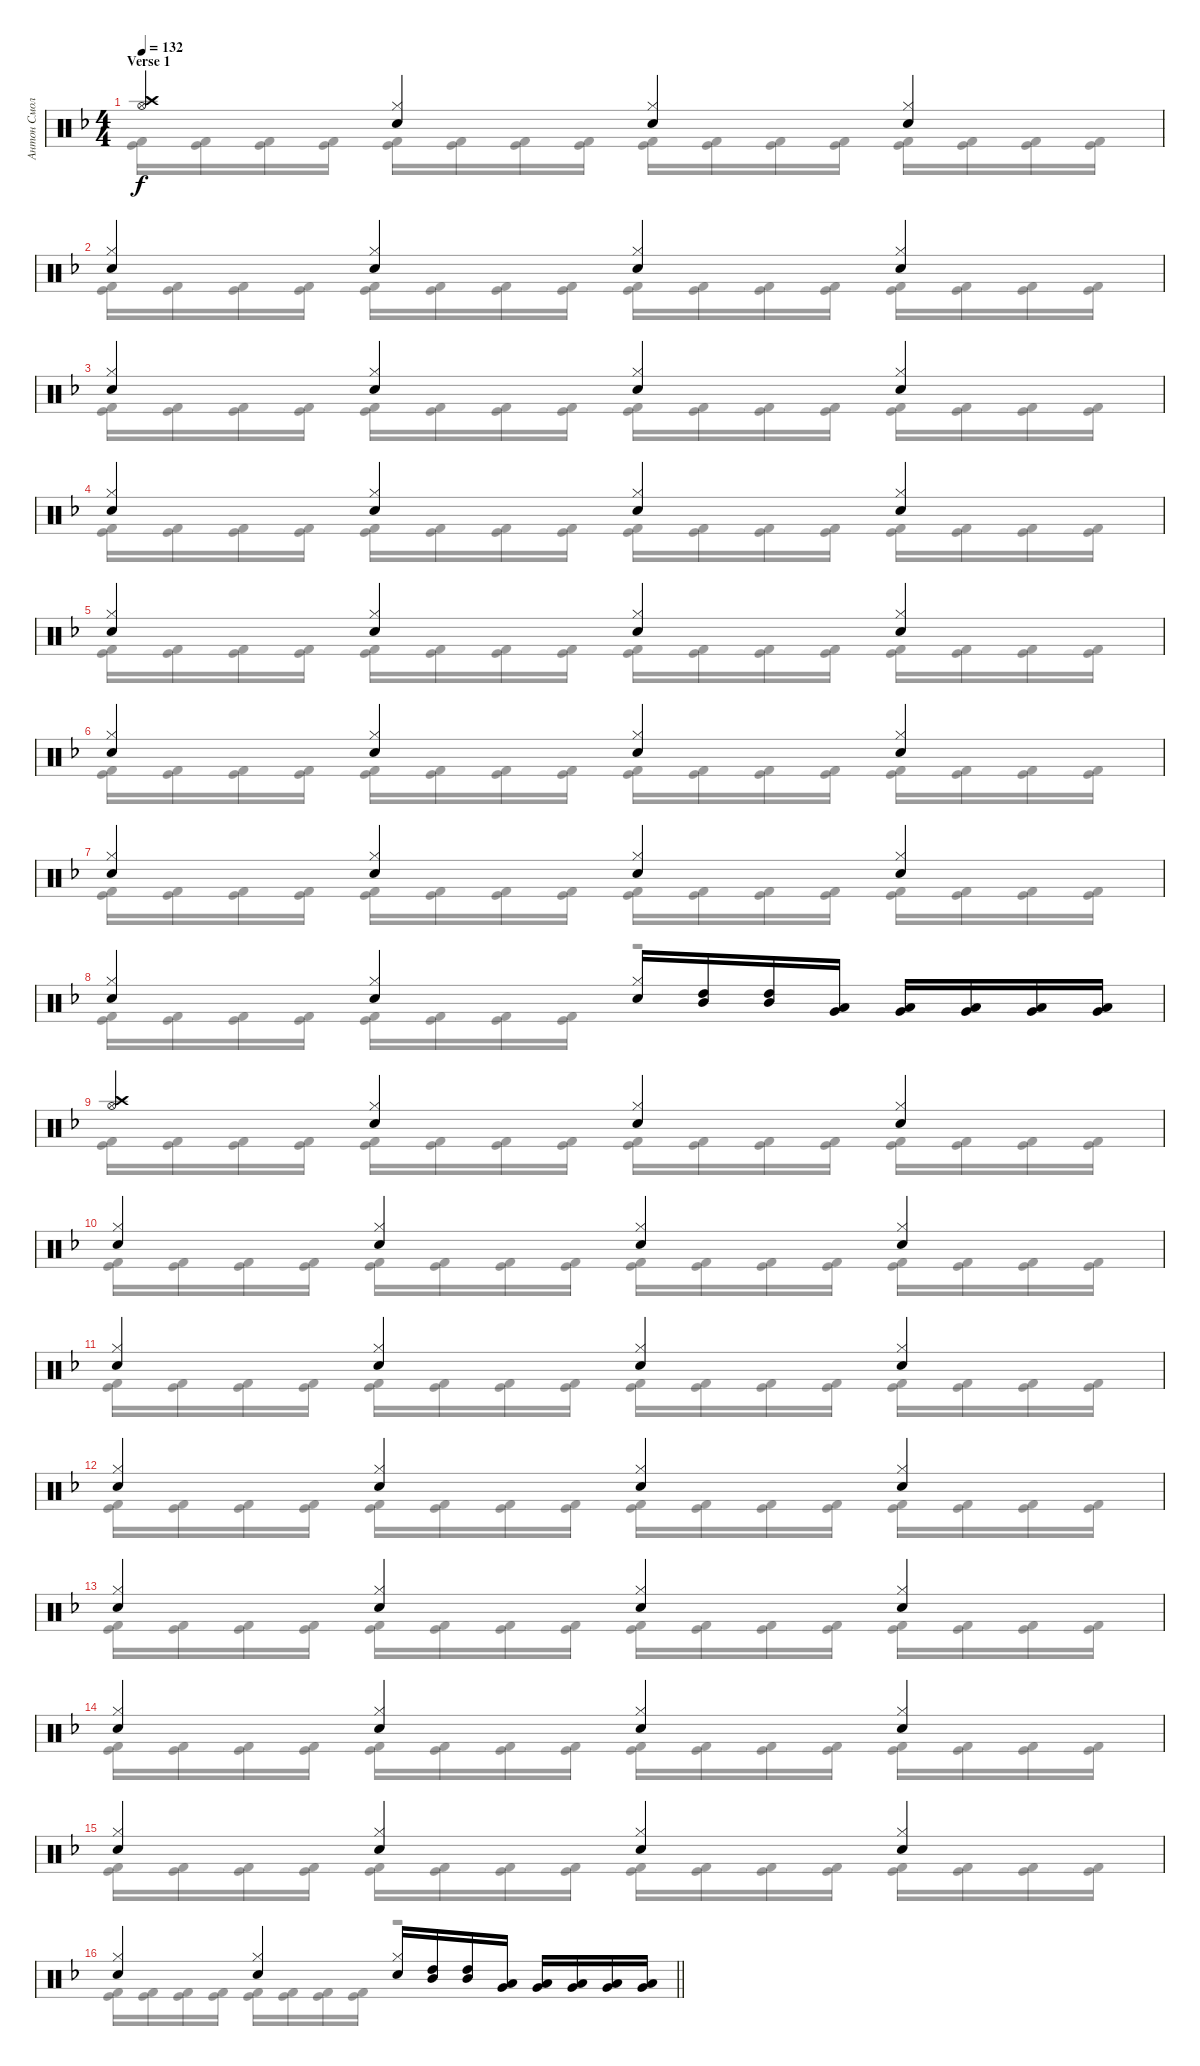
\track ("Антон Смольянин" "Антон Смол") {instrument percussion}
\staff {score}
\articulation defaults
\voice
\ts (4 4)
\section ("" "Verse 1")
\tempo 132
\clef neutral
\ks f
("Hi-Hat (open)" "Crash high (hit)").4{dy f} ("Hi-Hat (closed)" "Snare (hit) 2").4 ("Hi-Hat (closed)" "Snare (hit) 2").4 ("Hi-Hat (closed)" "Snare (hit) 2").4 |
("Hi-Hat (closed)" "Snare (hit) 2").4 ("Hi-Hat (closed)" "Snare (hit) 2").4 ("Hi-Hat (closed)" "Snare (hit) 2").4 ("Hi-Hat (closed)" "Snare (hit) 2").4 |
("Hi-Hat (closed)" "Snare (hit) 2").4 ("Hi-Hat (closed)" "Snare (hit) 2").4 ("Hi-Hat (closed)" "Snare (hit) 2").4 ("Hi-Hat (closed)" "Snare (hit) 2").4 |
("Hi-Hat (closed)" "Snare (hit) 2").4 ("Hi-Hat (closed)" "Snare (hit) 2").4 ("Hi-Hat (closed)" "Snare (hit) 2").4 ("Hi-Hat (closed)" "Snare (hit) 2").4 |
("Hi-Hat (closed)" "Snare (hit) 2").4 ("Hi-Hat (closed)" "Snare (hit) 2").4 ("Hi-Hat (closed)" "Snare (hit) 2").4 ("Hi-Hat (closed)" "Snare (hit) 2").4 |
("Hi-Hat (closed)" "Snare (hit) 2").4 ("Hi-Hat (closed)" "Snare (hit) 2").4 ("Hi-Hat (closed)" "Snare (hit) 2").4 ("Hi-Hat (closed)" "Snare (hit) 2").4 |
("Hi-Hat (closed)" "Snare (hit) 2").4 ("Hi-Hat (closed)" "Snare (hit) 2").4 ("Hi-Hat (closed)" "Snare (hit) 2").4 ("Hi-Hat (closed)" "Snare (hit) 2").4 |
("Hi-Hat (closed)" "Snare (hit) 2").4 ("Hi-Hat (closed)" "Snare (hit) 2").4 ("Hi-Hat (closed)" "Snare (hit) 2").16 ("High Tom (hit)" "Mid Tom (hit)").16 ("Mid Tom (hit)" "High Tom (hit)").16 ("Low Tom (hit)" "Very Low Tom (hit)").16 ("Very Low Tom (hit)" "Low Tom (hit)").16 ("Very Low Tom (hit)" "Low Tom (hit)").16 ("Low Floor Tom (hit)" "Very Low Tom (hit)").16 ("Very Low Tom (hit)" "Low Tom (hit)").16 |
("Hi-Hat (open)" "Crash high (hit)").4 ("Hi-Hat (closed)" "Snare (hit) 2").4 ("Hi-Hat (closed)" "Snare (hit) 2").4 ("Hi-Hat (closed)" "Snare (hit) 2").4 |
("Hi-Hat (closed)" "Snare (hit) 2").4 ("Hi-Hat (closed)" "Snare (hit) 2").4 ("Hi-Hat (closed)" "Snare (hit) 2").4 ("Hi-Hat (closed)" "Snare (hit) 2").4 |
("Hi-Hat (closed)" "Snare (hit) 2").4 ("Hi-Hat (closed)" "Snare (hit) 2").4 ("Hi-Hat (closed)" "Snare (hit) 2").4 ("Hi-Hat (closed)" "Snare (hit) 2").4 |
("Hi-Hat (closed)" "Snare (hit) 2").4 ("Hi-Hat (closed)" "Snare (hit) 2").4 ("Hi-Hat (closed)" "Snare (hit) 2").4 ("Hi-Hat (closed)" "Snare (hit) 2").4 |
("Hi-Hat (closed)" "Snare (hit) 2").4 ("Hi-Hat (closed)" "Snare (hit) 2").4 ("Hi-Hat (closed)" "Snare (hit) 2").4 ("Hi-Hat (closed)" "Snare (hit) 2").4 |
("Hi-Hat (closed)" "Snare (hit) 2").4 ("Hi-Hat (closed)" "Snare (hit) 2").4 ("Hi-Hat (closed)" "Snare (hit) 2").4 ("Hi-Hat (closed)" "Snare (hit) 2").4 |
("Hi-Hat (closed)" "Snare (hit) 2").4 ("Hi-Hat (closed)" "Snare (hit) 2").4 ("Hi-Hat (closed)" "Snare (hit) 2").4 ("Hi-Hat (closed)" "Snare (hit) 2").4 |
\barLineRight lightlight
("Hi-Hat (closed)" "Snare (hit) 2").4 ("Hi-Hat (closed)" "Snare (hit) 2").4 ("Hi-Hat (closed)" "Snare (hit) 2").16 ("High Tom (hit)" "Mid Tom (hit)").16 ("Mid Tom (hit)" "High Tom (hit)").16 ("Low Tom (hit)" "Very Low Tom (hit)").16 ("Very Low Tom (hit)" "Low Tom (hit)").16 ("Very Low Tom (hit)" "Low Tom (hit)").16 ("Low Floor Tom (hit)" "Very Low Tom (hit)").16 ("Very Low Tom (hit)" "Low Tom (hit)").16
\voice
\clef neutral
\ottava regular
\simile none
\ks f
("Kick (hit) 2" "Kick (hit)").16{dy f} ("Kick (hit) 2" "Kick (hit)").16 ("Kick (hit) 2" "Kick (hit)").16 ("Kick (hit) 2" "Kick (hit)").16 ("Kick (hit) 2" "Kick (hit)").16 ("Kick (hit) 2" "Kick (hit)").16 ("Kick (hit) 2" "Kick (hit)").16 ("Kick (hit) 2" "Kick (hit)").16 ("Kick (hit) 2" "Kick (hit)").16 ("Kick (hit) 2" "Kick (hit)").16 ("Kick (hit) 2" "Kick (hit)").16 ("Kick (hit) 2" "Kick (hit)").16 ("Kick (hit) 2" "Kick (hit)").16 ("Kick (hit) 2" "Kick (hit)").16 ("Kick (hit) 2" "Kick (hit)").16 ("Kick (hit) 2" "Kick (hit)").16 |
("Kick (hit) 2" "Kick (hit)").16 ("Kick (hit) 2" "Kick (hit)").16 ("Kick (hit) 2" "Kick (hit)").16 ("Kick (hit) 2" "Kick (hit)").16 ("Kick (hit) 2" "Kick (hit)").16 ("Kick (hit) 2" "Kick (hit)").16 ("Kick (hit) 2" "Kick (hit)").16 ("Kick (hit) 2" "Kick (hit)").16 ("Kick (hit) 2" "Kick (hit)").16 ("Kick (hit) 2" "Kick (hit)").16 ("Kick (hit) 2" "Kick (hit)").16 ("Kick (hit) 2" "Kick (hit)").16 ("Kick (hit) 2" "Kick (hit)").16 ("Kick (hit) 2" "Kick (hit)").16 ("Kick (hit) 2" "Kick (hit)").16 ("Kick (hit) 2" "Kick (hit)").16 |
("Kick (hit) 2" "Kick (hit)").16 ("Kick (hit) 2" "Kick (hit)").16 ("Kick (hit) 2" "Kick (hit)").16 ("Kick (hit) 2" "Kick (hit)").16 ("Kick (hit) 2" "Kick (hit)").16 ("Kick (hit) 2" "Kick (hit)").16 ("Kick (hit) 2" "Kick (hit)").16 ("Kick (hit) 2" "Kick (hit)").16 ("Kick (hit) 2" "Kick (hit)").16 ("Kick (hit) 2" "Kick (hit)").16 ("Kick (hit) 2" "Kick (hit)").16 ("Kick (hit) 2" "Kick (hit)").16 ("Kick (hit) 2" "Kick (hit)").16 ("Kick (hit) 2" "Kick (hit)").16 ("Kick (hit) 2" "Kick (hit)").16 ("Kick (hit) 2" "Kick (hit)").16 |
("Kick (hit) 2" "Kick (hit)").16 ("Kick (hit) 2" "Kick (hit)").16 ("Kick (hit) 2" "Kick (hit)").16 ("Kick (hit) 2" "Kick (hit)").16 ("Kick (hit) 2" "Kick (hit)").16 ("Kick (hit) 2" "Kick (hit)").16 ("Kick (hit) 2" "Kick (hit)").16 ("Kick (hit) 2" "Kick (hit)").16 ("Kick (hit) 2" "Kick (hit)").16 ("Kick (hit) 2" "Kick (hit)").16 ("Kick (hit) 2" "Kick (hit)").16 ("Kick (hit) 2" "Kick (hit)").16 ("Kick (hit) 2" "Kick (hit)").16 ("Kick (hit) 2" "Kick (hit)").16 ("Kick (hit) 2" "Kick (hit)").16 ("Kick (hit) 2" "Kick (hit)").16 |
("Kick (hit) 2" "Kick (hit)").16 ("Kick (hit) 2" "Kick (hit)").16 ("Kick (hit) 2" "Kick (hit)").16 ("Kick (hit) 2" "Kick (hit)").16 ("Kick (hit) 2" "Kick (hit)").16 ("Kick (hit) 2" "Kick (hit)").16 ("Kick (hit) 2" "Kick (hit)").16 ("Kick (hit) 2" "Kick (hit)").16 ("Kick (hit) 2" "Kick (hit)").16 ("Kick (hit) 2" "Kick (hit)").16 ("Kick (hit) 2" "Kick (hit)").16 ("Kick (hit) 2" "Kick (hit)").16 ("Kick (hit) 2" "Kick (hit)").16 ("Kick (hit) 2" "Kick (hit)").16 ("Kick (hit) 2" "Kick (hit)").16 ("Kick (hit) 2" "Kick (hit)").16 |
("Kick (hit) 2" "Kick (hit)").16 ("Kick (hit) 2" "Kick (hit)").16 ("Kick (hit) 2" "Kick (hit)").16 ("Kick (hit) 2" "Kick (hit)").16 ("Kick (hit) 2" "Kick (hit)").16 ("Kick (hit) 2" "Kick (hit)").16 ("Kick (hit) 2" "Kick (hit)").16 ("Kick (hit) 2" "Kick (hit)").16 ("Kick (hit) 2" "Kick (hit)").16 ("Kick (hit) 2" "Kick (hit)").16 ("Kick (hit) 2" "Kick (hit)").16 ("Kick (hit) 2" "Kick (hit)").16 ("Kick (hit) 2" "Kick (hit)").16 ("Kick (hit) 2" "Kick (hit)").16 ("Kick (hit) 2" "Kick (hit)").16 ("Kick (hit) 2" "Kick (hit)").16 |
("Kick (hit) 2" "Kick (hit)").16 ("Kick (hit) 2" "Kick (hit)").16 ("Kick (hit) 2" "Kick (hit)").16 ("Kick (hit) 2" "Kick (hit)").16 ("Kick (hit) 2" "Kick (hit)").16 ("Kick (hit) 2" "Kick (hit)").16 ("Kick (hit) 2" "Kick (hit)").16 ("Kick (hit) 2" "Kick (hit)").16 ("Kick (hit) 2" "Kick (hit)").16 ("Kick (hit) 2" "Kick (hit)").16 ("Kick (hit) 2" "Kick (hit)").16 ("Kick (hit) 2" "Kick (hit)").16 ("Kick (hit) 2" "Kick (hit)").16 ("Kick (hit) 2" "Kick (hit)").16 ("Kick (hit) 2" "Kick (hit)").16 ("Kick (hit) 2" "Kick (hit)").16 |
("Kick (hit) 2" "Kick (hit)").16 ("Kick (hit) 2" "Kick (hit)").16 ("Kick (hit) 2" "Kick (hit)").16 ("Kick (hit) 2" "Kick (hit)").16 ("Kick (hit) 2" "Kick (hit)").16 ("Kick (hit) 2" "Kick (hit)").16 ("Kick (hit) 2" "Kick (hit)").16 ("Kick (hit) 2" "Kick (hit)").16 r.2 |
("Kick (hit) 2" "Kick (hit)").16 ("Kick (hit) 2" "Kick (hit)").16 ("Kick (hit) 2" "Kick (hit)").16 ("Kick (hit) 2" "Kick (hit)").16 ("Kick (hit) 2" "Kick (hit)").16 ("Kick (hit) 2" "Kick (hit)").16 ("Kick (hit) 2" "Kick (hit)").16 ("Kick (hit) 2" "Kick (hit)").16 ("Kick (hit) 2" "Kick (hit)").16 ("Kick (hit) 2" "Kick (hit)").16 ("Kick (hit) 2" "Kick (hit)").16 ("Kick (hit) 2" "Kick (hit)").16 ("Kick (hit) 2" "Kick (hit)").16 ("Kick (hit) 2" "Kick (hit)").16 ("Kick (hit) 2" "Kick (hit)").16 ("Kick (hit) 2" "Kick (hit)").16 |
("Kick (hit) 2" "Kick (hit)").16 ("Kick (hit) 2" "Kick (hit)").16 ("Kick (hit) 2" "Kick (hit)").16 ("Kick (hit) 2" "Kick (hit)").16 ("Kick (hit) 2" "Kick (hit)").16 ("Kick (hit) 2" "Kick (hit)").16 ("Kick (hit) 2" "Kick (hit)").16 ("Kick (hit) 2" "Kick (hit)").16 ("Kick (hit) 2" "Kick (hit)").16 ("Kick (hit) 2" "Kick (hit)").16 ("Kick (hit) 2" "Kick (hit)").16 ("Kick (hit) 2" "Kick (hit)").16 ("Kick (hit) 2" "Kick (hit)").16 ("Kick (hit) 2" "Kick (hit)").16 ("Kick (hit) 2" "Kick (hit)").16 ("Kick (hit) 2" "Kick (hit)").16 |
("Kick (hit) 2" "Kick (hit)").16 ("Kick (hit) 2" "Kick (hit)").16 ("Kick (hit) 2" "Kick (hit)").16 ("Kick (hit) 2" "Kick (hit)").16 ("Kick (hit) 2" "Kick (hit)").16 ("Kick (hit) 2" "Kick (hit)").16 ("Kick (hit) 2" "Kick (hit)").16 ("Kick (hit) 2" "Kick (hit)").16 ("Kick (hit) 2" "Kick (hit)").16 ("Kick (hit) 2" "Kick (hit)").16 ("Kick (hit) 2" "Kick (hit)").16 ("Kick (hit) 2" "Kick (hit)").16 ("Kick (hit) 2" "Kick (hit)").16 ("Kick (hit) 2" "Kick (hit)").16 ("Kick (hit) 2" "Kick (hit)").16 ("Kick (hit) 2" "Kick (hit)").16 |
("Kick (hit) 2" "Kick (hit)").16 ("Kick (hit) 2" "Kick (hit)").16 ("Kick (hit) 2" "Kick (hit)").16 ("Kick (hit) 2" "Kick (hit)").16 ("Kick (hit) 2" "Kick (hit)").16 ("Kick (hit) 2" "Kick (hit)").16 ("Kick (hit) 2" "Kick (hit)").16 ("Kick (hit) 2" "Kick (hit)").16 ("Kick (hit) 2" "Kick (hit)").16 ("Kick (hit) 2" "Kick (hit)").16 ("Kick (hit) 2" "Kick (hit)").16 ("Kick (hit) 2" "Kick (hit)").16 ("Kick (hit) 2" "Kick (hit)").16 ("Kick (hit) 2" "Kick (hit)").16 ("Kick (hit) 2" "Kick (hit)").16 ("Kick (hit) 2" "Kick (hit)").16 |
("Kick (hit) 2" "Kick (hit)").16 ("Kick (hit) 2" "Kick (hit)").16 ("Kick (hit) 2" "Kick (hit)").16 ("Kick (hit) 2" "Kick (hit)").16 ("Kick (hit) 2" "Kick (hit)").16 ("Kick (hit) 2" "Kick (hit)").16 ("Kick (hit) 2" "Kick (hit)").16 ("Kick (hit) 2" "Kick (hit)").16 ("Kick (hit) 2" "Kick (hit)").16 ("Kick (hit) 2" "Kick (hit)").16 ("Kick (hit) 2" "Kick (hit)").16 ("Kick (hit) 2" "Kick (hit)").16 ("Kick (hit) 2" "Kick (hit)").16 ("Kick (hit) 2" "Kick (hit)").16 ("Kick (hit) 2" "Kick (hit)").16 ("Kick (hit) 2" "Kick (hit)").16 |
("Kick (hit) 2" "Kick (hit)").16 ("Kick (hit) 2" "Kick (hit)").16 ("Kick (hit) 2" "Kick (hit)").16 ("Kick (hit) 2" "Kick (hit)").16 ("Kick (hit) 2" "Kick (hit)").16 ("Kick (hit) 2" "Kick (hit)").16 ("Kick (hit) 2" "Kick (hit)").16 ("Kick (hit) 2" "Kick (hit)").16 ("Kick (hit) 2" "Kick (hit)").16 ("Kick (hit) 2" "Kick (hit)").16 ("Kick (hit) 2" "Kick (hit)").16 ("Kick (hit) 2" "Kick (hit)").16 ("Kick (hit) 2" "Kick (hit)").16 ("Kick (hit) 2" "Kick (hit)").16 ("Kick (hit) 2" "Kick (hit)").16 ("Kick (hit) 2" "Kick (hit)").16 |
("Kick (hit) 2" "Kick (hit)").16 ("Kick (hit) 2" "Kick (hit)").16 ("Kick (hit) 2" "Kick (hit)").16 ("Kick (hit) 2" "Kick (hit)").16 ("Kick (hit) 2" "Kick (hit)").16 ("Kick (hit) 2" "Kick (hit)").16 ("Kick (hit) 2" "Kick (hit)").16 ("Kick (hit) 2" "Kick (hit)").16 ("Kick (hit) 2" "Kick (hit)").16 ("Kick (hit) 2" "Kick (hit)").16 ("Kick (hit) 2" "Kick (hit)").16 ("Kick (hit) 2" "Kick (hit)").16 ("Kick (hit) 2" "Kick (hit)").16 ("Kick (hit) 2" "Kick (hit)").16 ("Kick (hit) 2" "Kick (hit)").16 ("Kick (hit) 2" "Kick (hit)").16 |
\barLineRight lightlight
("Kick (hit) 2" "Kick (hit)").16 ("Kick (hit) 2" "Kick (hit)").16 ("Kick (hit) 2" "Kick (hit)").16 ("Kick (hit) 2" "Kick (hit)").16 ("Kick (hit) 2" "Kick (hit)").16 ("Kick (hit) 2" "Kick (hit)").16 ("Kick (hit) 2" "Kick (hit)").16 ("Kick (hit) 2" "Kick (hit)").16 r.2
